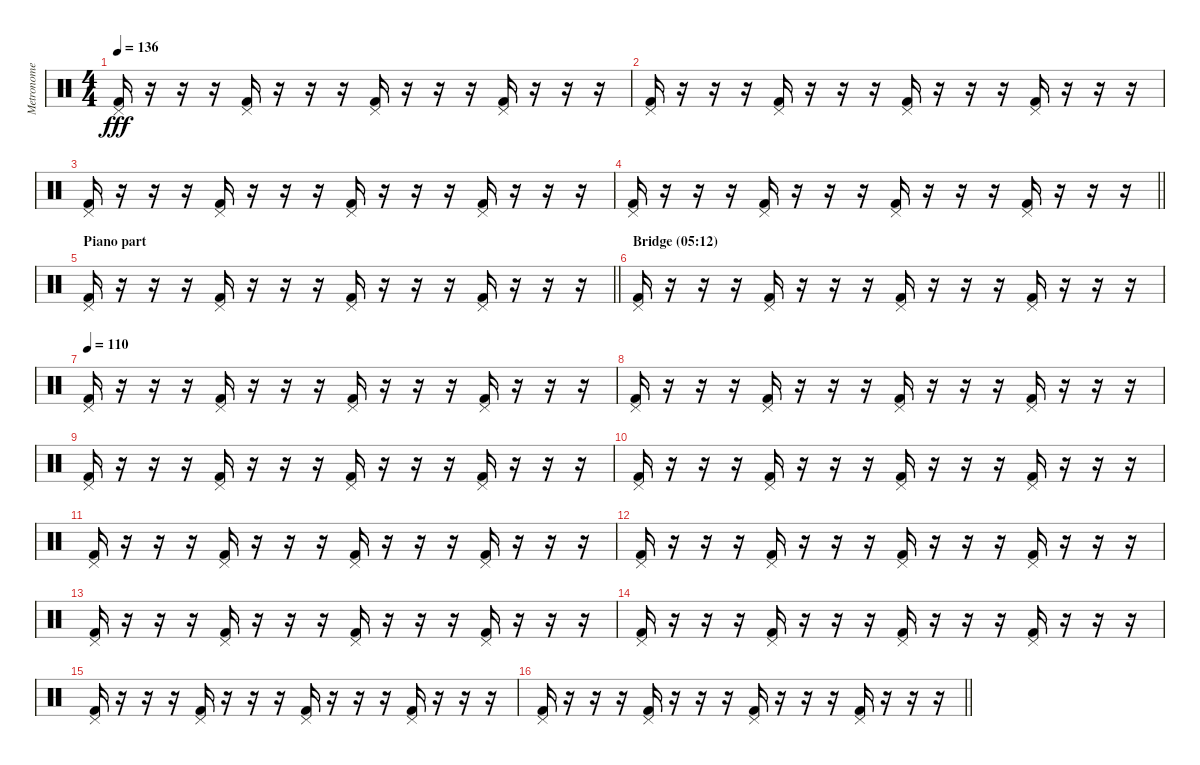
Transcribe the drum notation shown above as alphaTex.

\track ("Metronome" "Metronome") {mute instrument percussion}
\staff {score}
\articulation defaults
\ts (4 4)
\tempo 136
\clef neutral
\ks c
("Pedal Hi-Hat (hit)" "Kick (hit) 2").16{dy fff} r.16 r.16 r.16 ("Pedal Hi-Hat (hit)" "Kick (hit) 2").16 r.16 r.16 r.16 ("Pedal Hi-Hat (hit)" "Kick (hit) 2").16 r.16 r.16 r.16 ("Pedal Hi-Hat (hit)" "Kick (hit) 2").16 r.16 r.16 r.16 |
("Pedal Hi-Hat (hit)" "Kick (hit) 2").16 r.16 r.16 r.16 ("Pedal Hi-Hat (hit)" "Kick (hit) 2").16 r.16 r.16 r.16 ("Pedal Hi-Hat (hit)" "Kick (hit) 2").16 r.16 r.16 r.16 ("Pedal Hi-Hat (hit)" "Kick (hit) 2").16 r.16 r.16 r.16 |
("Pedal Hi-Hat (hit)" "Kick (hit) 2").16 r.16 r.16 r.16 ("Pedal Hi-Hat (hit)" "Kick (hit) 2").16 r.16 r.16 r.16 ("Pedal Hi-Hat (hit)" "Kick (hit) 2").16 r.16 r.16 r.16 ("Pedal Hi-Hat (hit)" "Kick (hit) 2").16 r.16 r.16 r.16 |
\barLineRight lightlight
("Pedal Hi-Hat (hit)" "Kick (hit) 2").16 r.16 r.16 r.16 ("Pedal Hi-Hat (hit)" "Kick (hit) 2").16 r.16 r.16 r.16 ("Pedal Hi-Hat (hit)" "Kick (hit) 2").16 r.16 r.16 r.16 ("Pedal Hi-Hat (hit)" "Kick (hit) 2").16 r.16 r.16 r.16 |
\section ("" "Piano part")
\barLineRight lightlight
("Pedal Hi-Hat (hit)" "Kick (hit) 2").16 r.16 r.16 r.16 ("Pedal Hi-Hat (hit)" "Kick (hit) 2").16 r.16 r.16 r.16 ("Pedal Hi-Hat (hit)" "Kick (hit) 2").16 r.16 r.16 r.16 ("Pedal Hi-Hat (hit)" "Kick (hit) 2").16 r.16 r.16 r.16 |
\section ("" "Bridge (05:12)")
("Pedal Hi-Hat (hit)" "Kick (hit) 2").16 r.16 r.16 r.16 ("Pedal Hi-Hat (hit)" "Kick (hit) 2").16 r.16 r.16 r.16 ("Pedal Hi-Hat (hit)" "Kick (hit) 2").16 r.16 r.16 r.16 ("Pedal Hi-Hat (hit)" "Kick (hit) 2").16 r.16 r.16 r.16 |
\tempo 110
("Pedal Hi-Hat (hit)" "Kick (hit) 2").16 r.16 r.16 r.16 ("Pedal Hi-Hat (hit)" "Kick (hit) 2").16 r.16 r.16 r.16 ("Pedal Hi-Hat (hit)" "Kick (hit) 2").16 r.16 r.16 r.16 ("Pedal Hi-Hat (hit)" "Kick (hit) 2").16 r.16 r.16 r.16 |
("Pedal Hi-Hat (hit)" "Kick (hit) 2").16 r.16 r.16 r.16 ("Pedal Hi-Hat (hit)" "Kick (hit) 2").16 r.16 r.16 r.16 ("Pedal Hi-Hat (hit)" "Kick (hit) 2").16 r.16 r.16 r.16 ("Pedal Hi-Hat (hit)" "Kick (hit) 2").16 r.16 r.16 r.16 |
("Pedal Hi-Hat (hit)" "Kick (hit) 2").16 r.16 r.16 r.16 ("Pedal Hi-Hat (hit)" "Kick (hit) 2").16 r.16 r.16 r.16 ("Pedal Hi-Hat (hit)" "Kick (hit) 2").16 r.16 r.16 r.16 ("Pedal Hi-Hat (hit)" "Kick (hit) 2").16 r.16 r.16 r.16 |
("Pedal Hi-Hat (hit)" "Kick (hit) 2").16 r.16 r.16 r.16 ("Pedal Hi-Hat (hit)" "Kick (hit) 2").16 r.16 r.16 r.16 ("Pedal Hi-Hat (hit)" "Kick (hit) 2").16 r.16 r.16 r.16 ("Pedal Hi-Hat (hit)" "Kick (hit) 2").16 r.16 r.16 r.16 |
("Pedal Hi-Hat (hit)" "Kick (hit) 2").16 r.16 r.16 r.16 ("Pedal Hi-Hat (hit)" "Kick (hit) 2").16 r.16 r.16 r.16 ("Pedal Hi-Hat (hit)" "Kick (hit) 2").16 r.16 r.16 r.16 ("Pedal Hi-Hat (hit)" "Kick (hit) 2").16 r.16 r.16 r.16 |
("Pedal Hi-Hat (hit)" "Kick (hit) 2").16 r.16 r.16 r.16 ("Pedal Hi-Hat (hit)" "Kick (hit) 2").16 r.16 r.16 r.16 ("Pedal Hi-Hat (hit)" "Kick (hit) 2").16 r.16 r.16 r.16 ("Pedal Hi-Hat (hit)" "Kick (hit) 2").16 r.16 r.16 r.16 |
("Pedal Hi-Hat (hit)" "Kick (hit) 2").16 r.16 r.16 r.16 ("Pedal Hi-Hat (hit)" "Kick (hit) 2").16 r.16 r.16 r.16 ("Pedal Hi-Hat (hit)" "Kick (hit) 2").16 r.16 r.16 r.16 ("Pedal Hi-Hat (hit)" "Kick (hit) 2").16 r.16 r.16 r.16 |
("Pedal Hi-Hat (hit)" "Kick (hit) 2").16 r.16 r.16 r.16 ("Pedal Hi-Hat (hit)" "Kick (hit) 2").16 r.16 r.16 r.16 ("Pedal Hi-Hat (hit)" "Kick (hit) 2").16 r.16 r.16 r.16 ("Pedal Hi-Hat (hit)" "Kick (hit) 2").16 r.16 r.16 r.16 |
("Pedal Hi-Hat (hit)" "Kick (hit) 2").16 r.16 r.16 r.16 ("Pedal Hi-Hat (hit)" "Kick (hit) 2").16 r.16 r.16 r.16 ("Pedal Hi-Hat (hit)" "Kick (hit) 2").16 r.16 r.16 r.16 ("Pedal Hi-Hat (hit)" "Kick (hit) 2").16 r.16 r.16 r.16 |
\barLineRight lightlight
("Pedal Hi-Hat (hit)" "Kick (hit) 2").16 r.16 r.16 r.16 ("Pedal Hi-Hat (hit)" "Kick (hit) 2").16 r.16 r.16 r.16 ("Pedal Hi-Hat (hit)" "Kick (hit) 2").16 r.16 r.16 r.16 ("Pedal Hi-Hat (hit)" "Kick (hit) 2").16 r.16 r.16 r.16
